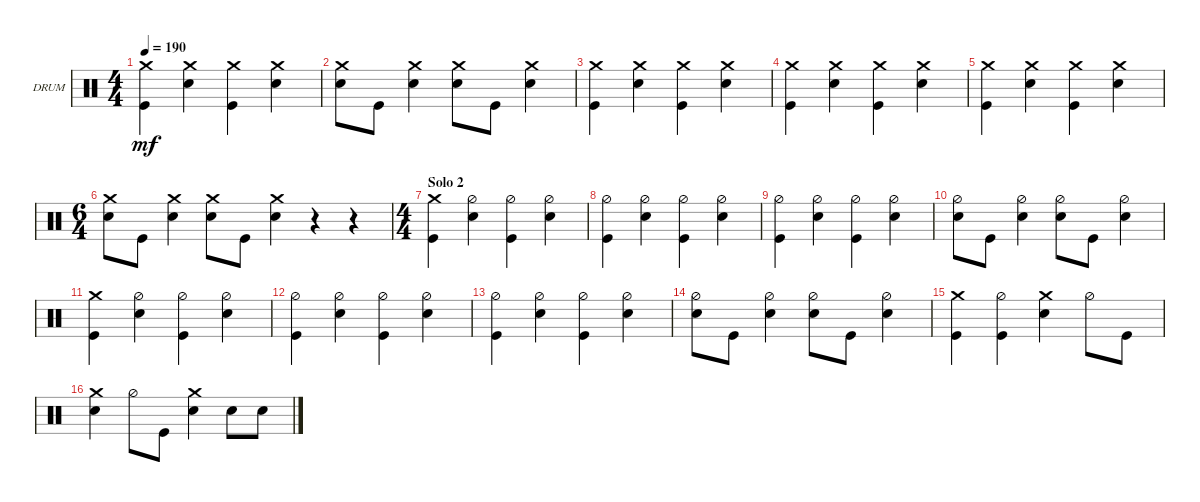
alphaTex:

\defaultSystemsLayout 4
\bracketExtendMode groupsimilarinstruments
\firstSystemTrackNameOrientation horizontal
\otherSystemsTrackNameOrientation horizontal
\track ("Drums" "DRUM") {instrument percussion}
\staff {score}
\articulation defaults
\ts (4 4)
\tempo 190
\clef neutral
\ks c
("Kick (hit)" "Crash medium (hit)").4{dy mf} ("Snare (hit) 2" "Crash medium (hit)").4 ("Kick (hit)" "Crash medium (hit)").4 ("Snare (hit) 2" "Crash medium (hit)").4 |
("Snare (hit) 2" "Crash medium (hit)").8 "Kick (hit)".8 ("Snare (hit) 2" "Crash medium (hit)").4 ("Snare (hit) 2" "Crash medium (hit)").8 "Kick (hit)".8 ("Snare (hit) 2" "Crash medium (hit)").4 |
("Kick (hit)" "Crash medium (hit)").4 ("Snare (hit) 2" "Crash medium (hit)").4 ("Kick (hit)" "Crash medium (hit)").4 ("Snare (hit) 2" "Crash medium (hit)").4 |
("Kick (hit)" "Crash medium (hit)").4 ("Snare (hit) 2" "Crash medium (hit)").4 ("Kick (hit)" "Crash medium (hit)").4 ("Snare (hit) 2" "Crash medium (hit)").4 |
("Kick (hit)" "Crash medium (hit)").4 ("Snare (hit) 2" "Crash medium (hit)").4 ("Kick (hit)" "Crash medium (hit)").4 ("Snare (hit) 2" "Crash medium (hit)").4 |
\ts (6 4)
("Snare (hit) 2" "Crash medium (hit)").8 "Kick (hit)".8 ("Snare (hit) 2" "Crash medium (hit)").4 ("Snare (hit) 2" "Crash medium (hit)").8 "Kick (hit)".8 ("Snare (hit) 2" "Crash medium (hit)").4 r.4 r.4 |
\ts (4 4)
\section ("" "Solo 2")
("Kick (hit)" "Crash medium (hit)").4 ("Snare (hit) 2" "Hi-Hat (half)").4 ("Kick (hit)" "Hi-Hat (half)").4 ("Snare (hit) 2" "Hi-Hat (half)").4 |
("Kick (hit)" "Hi-Hat (half)").4 ("Snare (hit) 2" "Hi-Hat (half)").4 ("Kick (hit)" "Hi-Hat (half)").4 ("Snare (hit) 2" "Hi-Hat (half)").4 |
("Kick (hit)" "Hi-Hat (half)").4 ("Snare (hit) 2" "Hi-Hat (half)").4 ("Kick (hit)" "Hi-Hat (half)").4 ("Snare (hit) 2" "Hi-Hat (half)").4 |
("Snare (hit) 2" "Hi-Hat (half)").8 "Kick (hit)".8 ("Snare (hit) 2" "Hi-Hat (half)").4 ("Snare (hit) 2" "Hi-Hat (half)").8 "Kick (hit)".8 ("Snare (hit) 2" "Hi-Hat (half)").4 |
("Kick (hit)" "Crash medium (hit)").4 ("Snare (hit) 2" "Hi-Hat (half)").4 ("Kick (hit)" "Hi-Hat (half)").4 ("Snare (hit) 2" "Hi-Hat (half)").4 |
("Kick (hit)" "Hi-Hat (half)").4 ("Snare (hit) 2" "Hi-Hat (half)").4 ("Kick (hit)" "Hi-Hat (half)").4 ("Snare (hit) 2" "Hi-Hat (half)").4 |
("Kick (hit)" "Hi-Hat (half)").4 ("Snare (hit) 2" "Hi-Hat (half)").4 ("Kick (hit)" "Hi-Hat (half)").4 ("Snare (hit) 2" "Hi-Hat (half)").4 |
("Snare (hit) 2" "Hi-Hat (half)").8 "Kick (hit)".8 ("Snare (hit) 2" "Hi-Hat (half)").4 ("Snare (hit) 2" "Hi-Hat (half)").8 "Kick (hit)".8 ("Snare (hit) 2" "Hi-Hat (half)").4 |
("Kick (hit)" "Crash medium (hit)").4 ("Kick (hit)" "Hi-Hat (half)").4 ("Snare (hit) 2" "Crash medium (hit)").4 "Hi-Hat (half)".8 "Kick (hit)".8 |
("Snare (hit) 2" "Crash medium (hit)").4 "Hi-Hat (half)".8 "Kick (hit)".8 ("Snare (hit) 2" "Crash medium (hit)").4 "Snare (hit) 2".8 "Snare (hit) 2".8
